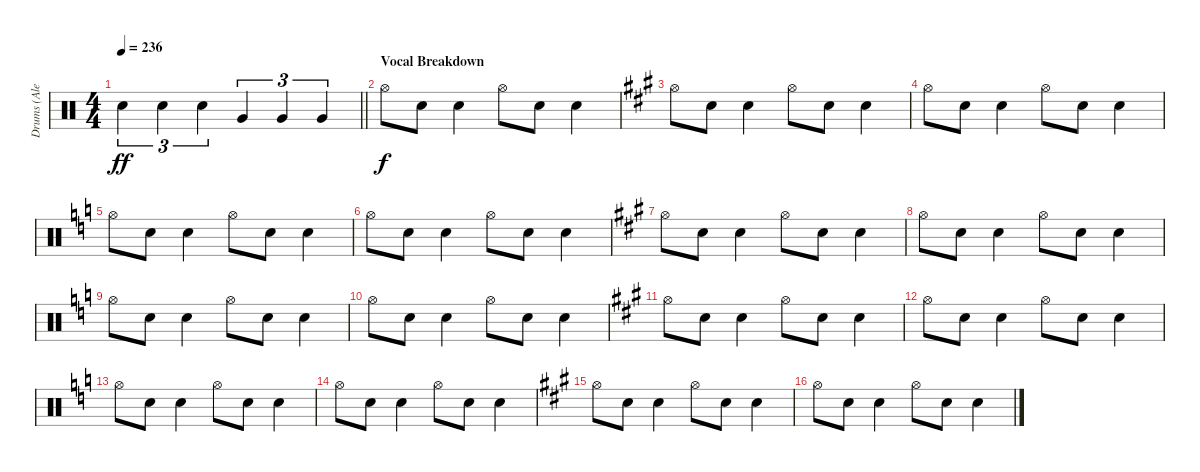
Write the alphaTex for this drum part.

\track ("Drums (Alex Van Halen)" "Drums (Ale") {instrument percussion}
\staff {score}
\articulation defaults
\ts (4 4)
\tempo 236
\clef neutral
\barLineRight lightlight
\ks c "Snare (hit) 2".4{tu (3 2) dy ff} "Snare (hit) 2".4{tu (3 2)} "Snare (hit) 2".4{tu (3 2)} "Very Low Tom (hit)".4{tu (3 2)} "Very Low Tom (hit)".4{tu (3 2)} "Very Low Tom (hit)".4{tu (3 2)}
|
\section ("" "Vocal Breakdown")
"Hi-Hat (open)".8{dy f} "Snare (hit) 2".8 "Snare (hit) 2".4 "Hi-Hat (open)".8 "Snare (hit) 2".8 "Snare (hit) 2".4 |
\ks a "Hi-Hat (open)".8 "Snare (hit) 2".8 "Snare (hit) 2".4 "Hi-Hat (open)".8 "Snare (hit) 2".8 "Snare (hit) 2".4
|
"Hi-Hat (open)".8 "Snare (hit) 2".8 "Snare (hit) 2".4 "Hi-Hat (open)".8 "Snare (hit) 2".8 "Snare (hit) 2".4 |
\ks c "Hi-Hat (open)".8 "Snare (hit) 2".8 "Snare (hit) 2".4 "Hi-Hat (open)".8 "Snare (hit) 2".8 "Snare (hit) 2".4
|
"Hi-Hat (open)".8 "Snare (hit) 2".8 "Snare (hit) 2".4 "Hi-Hat (open)".8 "Snare (hit) 2".8 "Snare (hit) 2".4 |
\ks a "Hi-Hat (open)".8 "Snare (hit) 2".8 "Snare (hit) 2".4 "Hi-Hat (open)".8 "Snare (hit) 2".8 "Snare (hit) 2".4
|
"Hi-Hat (open)".8 "Snare (hit) 2".8 "Snare (hit) 2".4 "Hi-Hat (open)".8 "Snare (hit) 2".8 "Snare (hit) 2".4 |
\ks c "Hi-Hat (open)".8 "Snare (hit) 2".8 "Snare (hit) 2".4 "Hi-Hat (open)".8 "Snare (hit) 2".8 "Snare (hit) 2".4
|
"Hi-Hat (open)".8 "Snare (hit) 2".8 "Snare (hit) 2".4 "Hi-Hat (open)".8 "Snare (hit) 2".8 "Snare (hit) 2".4 |
\ks a "Hi-Hat (open)".8 "Snare (hit) 2".8 "Snare (hit) 2".4 "Hi-Hat (open)".8 "Snare (hit) 2".8 "Snare (hit) 2".4
|
"Hi-Hat (open)".8 "Snare (hit) 2".8 "Snare (hit) 2".4 "Hi-Hat (open)".8 "Snare (hit) 2".8 "Snare (hit) 2".4 |
\ks c "Hi-Hat (open)".8 "Snare (hit) 2".8 "Snare (hit) 2".4 "Hi-Hat (open)".8 "Snare (hit) 2".8 "Snare (hit) 2".4
|
"Hi-Hat (open)".8 "Snare (hit) 2".8 "Snare (hit) 2".4 "Hi-Hat (open)".8 "Snare (hit) 2".8 "Snare (hit) 2".4 |
\ks a "Hi-Hat (open)".8 "Snare (hit) 2".8 "Snare (hit) 2".4 "Hi-Hat (open)".8 "Snare (hit) 2".8 "Snare (hit) 2".4
|
"Hi-Hat (open)".8 "Snare (hit) 2".8 "Snare (hit) 2".4 "Hi-Hat (open)".8 "Snare (hit) 2".8 "Snare (hit) 2".4
